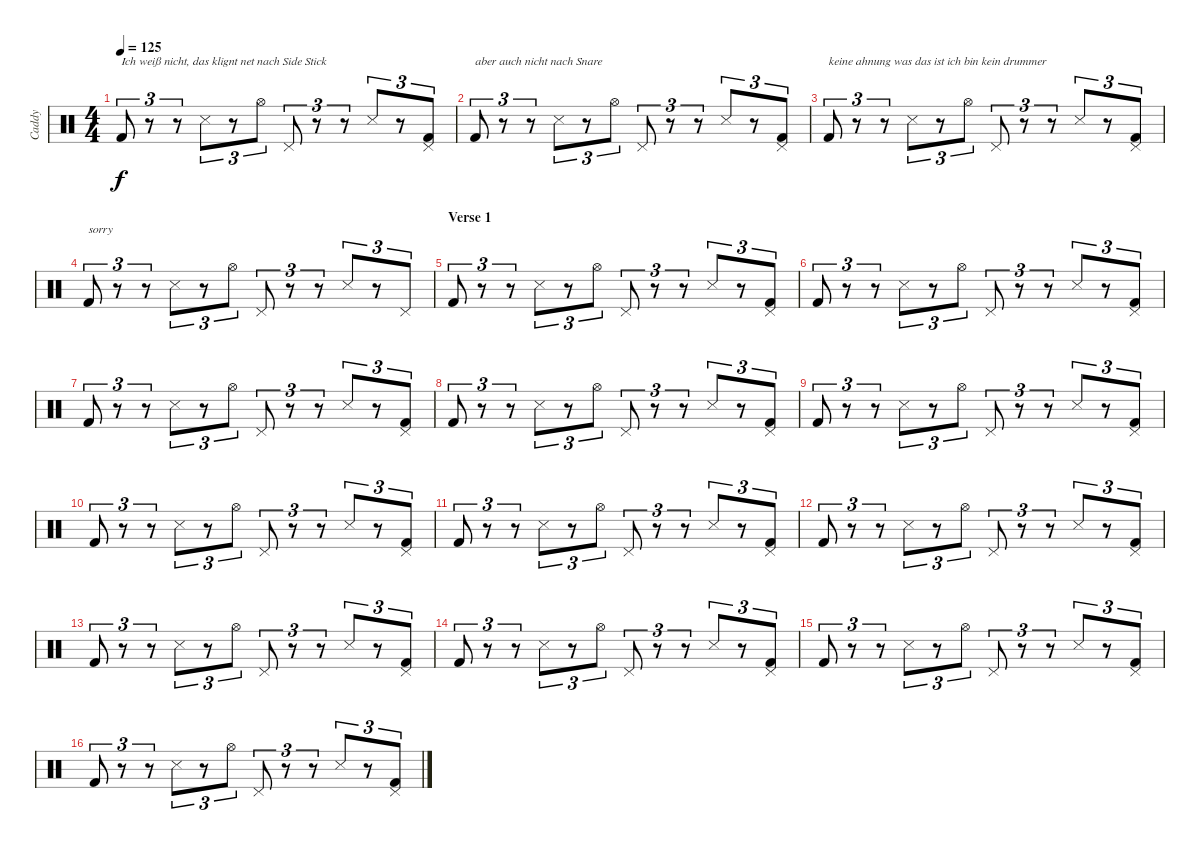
\track ("Caddy" "Caddy") {instrument percussion}
\staff {score}
\articulation defaults
\ts (4 4)
\tempo 125
\clef neutral
\ks c "Kick (hit) 2".8{tu (3 2) txt "Ich weiß nicht, das klignt net nach Side Stick" dy f}
r.8{tu (3 2)} r.8{tu (3 2)} "Snare (side stick) 3".8{tu (3 2)} r.8{tu (3 2)} "Hi-Hat (open)".8{tu (3 2)} "Pedal Hi-Hat (hit)".8{tu (3 2)} r.8{tu (3 2)} r.8{tu (3 2)} "Snare (side stick) 3".8{tu (3 2)} r.8{tu (3 2)} ("Pedal Hi-Hat (hit)" "Kick (hit) 2").8{tu (3 2)} |
"Kick (hit) 2".8{tu (3 2) txt "aber auch nicht nach Snare"} r.8{tu (3 2)} r.8{tu (3 2)} "Snare (side stick) 3".8{tu (3 2)} r.8{tu (3 2)} "Hi-Hat (open)".8{tu (3 2)} "Pedal Hi-Hat (hit)".8{tu (3 2)} r.8{tu (3 2)} r.8{tu (3 2)} "Snare (side stick) 3".8{tu (3 2)} r.8{tu (3 2)} ("Pedal Hi-Hat (hit)" "Kick (hit) 2").8{tu (3 2)} |
"Kick (hit) 2".8{tu (3 2) txt "keine ahnung was das ist ich bin kein drummer"} r.8{tu (3 2)} r.8{tu (3 2)} "Snare (side stick) 3".8{tu (3 2)} r.8{tu (3 2)} "Hi-Hat (open)".8{tu (3 2)} "Pedal Hi-Hat (hit)".8{tu (3 2)} r.8{tu (3 2)} r.8{tu (3 2)} "Snare (side stick) 3".8{tu (3 2)} r.8{tu (3 2)} ("Pedal Hi-Hat (hit)" "Kick (hit) 2").8{tu (3 2)} |
"Kick (hit) 2".8{tu (3 2) txt "sorry"} r.8{tu (3 2)} r.8{tu (3 2)} "Snare (side stick) 3".8{tu (3 2)} r.8{tu (3 2)} "Hi-Hat (open)".8{tu (3 2)} "Pedal Hi-Hat (hit)".8{tu (3 2)} r.8{tu (3 2)} r.8{tu (3 2)} "Snare (side stick) 3".8{tu (3 2)} r.8{tu (3 2)} "Pedal Hi-Hat (hit)".8{tu (3 2)} |
\section ("" "Verse 1")
"Kick (hit) 2".8{tu (3 2)} r.8{tu (3 2)} r.8{tu (3 2)} "Snare (side stick) 3".8{tu (3 2)} r.8{tu (3 2)} "Hi-Hat (open)".8{tu (3 2)} "Pedal Hi-Hat (hit)".8{tu (3 2)} r.8{tu (3 2)} r.8{tu (3 2)} "Snare (side stick) 3".8{tu (3 2)} r.8{tu (3 2)} ("Pedal Hi-Hat (hit)" "Kick (hit) 2").8{tu (3 2)} |
"Kick (hit) 2".8{tu (3 2)} r.8{tu (3 2)} r.8{tu (3 2)} "Snare (side stick) 3".8{tu (3 2)} r.8{tu (3 2)} "Hi-Hat (open)".8{tu (3 2)} "Pedal Hi-Hat (hit)".8{tu (3 2)} r.8{tu (3 2)} r.8{tu (3 2)} "Snare (side stick) 3".8{tu (3 2)} r.8{tu (3 2)} ("Pedal Hi-Hat (hit)" "Kick (hit) 2").8{tu (3 2)} |
"Kick (hit) 2".8{tu (3 2)} r.8{tu (3 2)} r.8{tu (3 2)} "Snare (side stick) 3".8{tu (3 2)} r.8{tu (3 2)} "Hi-Hat (open)".8{tu (3 2)} "Pedal Hi-Hat (hit)".8{tu (3 2)} r.8{tu (3 2)} r.8{tu (3 2)} "Snare (side stick) 3".8{tu (3 2)} r.8{tu (3 2)} ("Pedal Hi-Hat (hit)" "Kick (hit) 2").8{tu (3 2)} |
"Kick (hit) 2".8{tu (3 2)} r.8{tu (3 2)} r.8{tu (3 2)} "Snare (side stick) 3".8{tu (3 2)} r.8{tu (3 2)} "Hi-Hat (open)".8{tu (3 2)} "Pedal Hi-Hat (hit)".8{tu (3 2)} r.8{tu (3 2)} r.8{tu (3 2)} "Snare (side stick) 3".8{tu (3 2)} r.8{tu (3 2)} ("Pedal Hi-Hat (hit)" "Kick (hit) 2").8{tu (3 2)} |
"Kick (hit) 2".8{tu (3 2)} r.8{tu (3 2)} r.8{tu (3 2)} "Snare (side stick) 3".8{tu (3 2)} r.8{tu (3 2)} "Hi-Hat (open)".8{tu (3 2)} "Pedal Hi-Hat (hit)".8{tu (3 2)} r.8{tu (3 2)} r.8{tu (3 2)} "Snare (side stick) 3".8{tu (3 2)} r.8{tu (3 2)} ("Pedal Hi-Hat (hit)" "Kick (hit) 2").8{tu (3 2)} |
"Kick (hit) 2".8{tu (3 2)} r.8{tu (3 2)} r.8{tu (3 2)} "Snare (side stick) 3".8{tu (3 2)} r.8{tu (3 2)} "Hi-Hat (open)".8{tu (3 2)} "Pedal Hi-Hat (hit)".8{tu (3 2)} r.8{tu (3 2)} r.8{tu (3 2)} "Snare (side stick) 3".8{tu (3 2)} r.8{tu (3 2)} ("Pedal Hi-Hat (hit)" "Kick (hit) 2").8{tu (3 2)} |
"Kick (hit) 2".8{tu (3 2)} r.8{tu (3 2)} r.8{tu (3 2)} "Snare (side stick) 3".8{tu (3 2)} r.8{tu (3 2)} "Hi-Hat (open)".8{tu (3 2)} "Pedal Hi-Hat (hit)".8{tu (3 2)} r.8{tu (3 2)} r.8{tu (3 2)} "Snare (side stick) 3".8{tu (3 2)} r.8{tu (3 2)} ("Pedal Hi-Hat (hit)" "Kick (hit) 2").8{tu (3 2)} |
"Kick (hit) 2".8{tu (3 2)} r.8{tu (3 2)} r.8{tu (3 2)} "Snare (side stick) 3".8{tu (3 2)} r.8{tu (3 2)} "Hi-Hat (open)".8{tu (3 2)} "Pedal Hi-Hat (hit)".8{tu (3 2)} r.8{tu (3 2)} r.8{tu (3 2)} "Snare (side stick) 3".8{tu (3 2)} r.8{tu (3 2)} ("Pedal Hi-Hat (hit)" "Kick (hit) 2").8{tu (3 2)} |
"Kick (hit) 2".8{tu (3 2)} r.8{tu (3 2)} r.8{tu (3 2)} "Snare (side stick) 3".8{tu (3 2)} r.8{tu (3 2)} "Hi-Hat (open)".8{tu (3 2)} "Pedal Hi-Hat (hit)".8{tu (3 2)} r.8{tu (3 2)} r.8{tu (3 2)} "Snare (side stick) 3".8{tu (3 2)} r.8{tu (3 2)} ("Pedal Hi-Hat (hit)" "Kick (hit) 2").8{tu (3 2)} |
"Kick (hit) 2".8{tu (3 2)} r.8{tu (3 2)} r.8{tu (3 2)} "Snare (side stick) 3".8{tu (3 2)} r.8{tu (3 2)} "Hi-Hat (open)".8{tu (3 2)} "Pedal Hi-Hat (hit)".8{tu (3 2)} r.8{tu (3 2)} r.8{tu (3 2)} "Snare (side stick) 3".8{tu (3 2)} r.8{tu (3 2)} ("Pedal Hi-Hat (hit)" "Kick (hit) 2").8{tu (3 2)} |
"Kick (hit) 2".8{tu (3 2)} r.8{tu (3 2)} r.8{tu (3 2)} "Snare (side stick) 3".8{tu (3 2)} r.8{tu (3 2)} "Hi-Hat (open)".8{tu (3 2)} "Pedal Hi-Hat (hit)".8{tu (3 2)} r.8{tu (3 2)} r.8{tu (3 2)} "Snare (side stick) 3".8{tu (3 2)} r.8{tu (3 2)} ("Pedal Hi-Hat (hit)" "Kick (hit) 2").8{tu (3 2)} |
"Kick (hit) 2".8{tu (3 2)} r.8{tu (3 2)} r.8{tu (3 2)} "Snare (side stick) 3".8{tu (3 2)} r.8{tu (3 2)} "Hi-Hat (open)".8{tu (3 2)} "Pedal Hi-Hat (hit)".8{tu (3 2)} r.8{tu (3 2)} r.8{tu (3 2)} "Snare (side stick) 3".8{tu (3 2)} r.8{tu (3 2)} ("Pedal Hi-Hat (hit)" "Kick (hit) 2").8{tu (3 2)}
